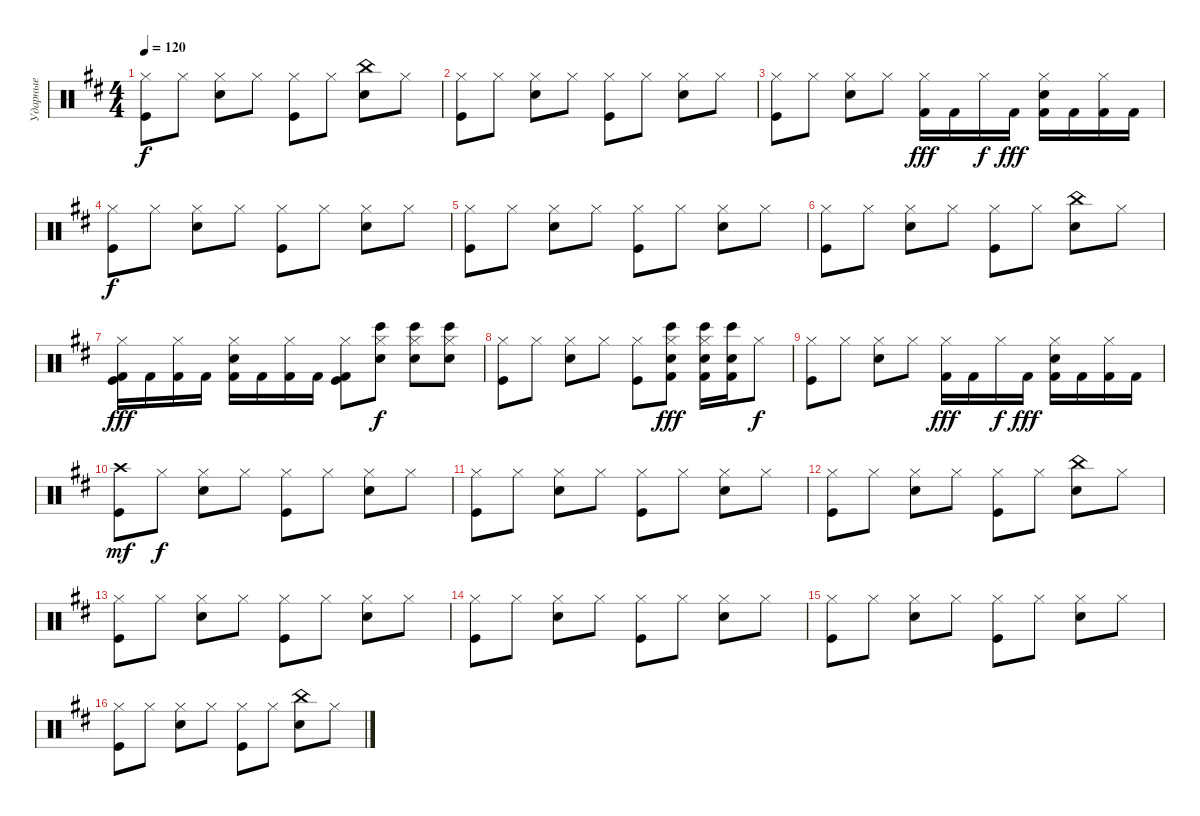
\track ("Ударные" "Ударные") {instrument percussion}
\staff {score}
\articulation defaults
\ts (4 4)
\tempo 120
\clef neutral
\ks bminor
("Hi-Hat (closed)" "Kick (hit)").8{dy f} "Hi-Hat (closed)".8 ("Hi-Hat (closed)" "Snare (hit) 2").8 "Hi-Hat (closed)".8 ("Hi-Hat (closed)" "Kick (hit)").8 "Hi-Hat (closed)".8 ("China (hit)" "Snare (hit) 2").8 "Hi-Hat (closed)".8 |
("Hi-Hat (closed)" "Kick (hit)").8 "Hi-Hat (closed)".8 ("Hi-Hat (closed)" "Snare (hit) 2").8 "Hi-Hat (closed)".8 ("Hi-Hat (closed)" "Kick (hit)").8 "Hi-Hat (closed)".8 ("Hi-Hat (closed)" "Snare (hit) 2").8 "Hi-Hat (closed)".8 |
("Hi-Hat (closed)" "Kick (hit)").8 "Hi-Hat (closed)".8 ("Hi-Hat (closed)" "Snare (hit) 2").8 "Hi-Hat (closed)".8 ("Hi-Hat (closed)" "Kick (hit) 2").16{dy fff} "Kick (hit) 2".16 "Hi-Hat (closed)".16{dy f} "Kick (hit) 2".16{dy fff} ("Hi-Hat (closed)" "Snare (hit) 2" "Kick (hit) 2").16 "Kick (hit) 2".16 ("Hi-Hat (closed)" "Kick (hit) 2").16 "Kick (hit) 2".16 |
("Hi-Hat (closed)" "Kick (hit)").8{dy f} "Hi-Hat (closed)".8 ("Hi-Hat (closed)" "Snare (hit) 2").8 "Hi-Hat (closed)".8 ("Hi-Hat (closed)" "Kick (hit)").8 "Hi-Hat (closed)".8 ("Hi-Hat (closed)" "Snare (hit) 2").8 "Hi-Hat (closed)".8 |
("Hi-Hat (closed)" "Kick (hit)").8 "Hi-Hat (closed)".8 ("Hi-Hat (closed)" "Snare (hit) 2").8 "Hi-Hat (closed)".8 ("Hi-Hat (closed)" "Kick (hit)").8 "Hi-Hat (closed)".8 ("Hi-Hat (closed)" "Snare (hit) 2").8 "Hi-Hat (closed)".8 |
("Hi-Hat (closed)" "Kick (hit)").8 "Hi-Hat (closed)".8 ("Hi-Hat (closed)" "Snare (hit) 2").8 "Hi-Hat (closed)".8 ("Hi-Hat (closed)" "Kick (hit)").8 "Hi-Hat (closed)".8 ("China (hit)" "Snare (hit) 2").8{balance 14} "Hi-Hat (closed)".8{balance 8} |
("Hi-Hat (closed)" "Kick (hit)" "Kick (hit) 2").16{dy fff} "Kick (hit) 2".16 ("Hi-Hat (closed)" "Kick (hit) 2").16 "Kick (hit) 2".16 ("Hi-Hat (closed)" "Snare (hit) 2" "Kick (hit) 2").16 "Kick (hit) 2".16 ("Hi-Hat (closed)" "Kick (hit) 2").16 "Kick (hit) 2".16 ("Hi-Hat (closed)" "Kick (hit)" "Kick (hit) 2").8 ("Hi-Hat (closed)" "Snare (hit) 2" "Bongo High (hit)").8{dy f} ("Hi-Hat (closed)" "Snare (hit) 2" "Bongo High (hit)").8 ("Hi-Hat (closed)" "Snare (hit) 2" "Bongo High (hit)").8 |
("Hi-Hat (closed)" "Kick (hit)").8 "Hi-Hat (closed)".8 ("Hi-Hat (closed)" "Snare (hit) 2").8 "Hi-Hat (closed)".8 ("Hi-Hat (closed)" "Kick (hit)").8 ("Hi-Hat (closed)" "Bongo High (hit)" "Hand Clap (hit)" "Kick (hit) 2").8{dy fff balance 13} ("Hi-Hat (closed)" "Snare (hit) 2" "Bongo High (hit)" "Kick (hit) 2").16 ("Bongo High (hit)" "Hand Clap (hit)" "Kick (hit) 2").16 "Hi-Hat (closed)".8{dy f balance 8} |
("Hi-Hat (closed)" "Kick (hit)").8 "Hi-Hat (closed)".8 ("Hi-Hat (closed)" "Snare (hit) 2").8 "Hi-Hat (closed)".8 ("Hi-Hat (closed)" "Kick (hit) 2").16{dy fff} "Kick (hit) 2".16 "Hi-Hat (closed)".16{dy f} "Kick (hit) 2".16{dy fff} ("Hi-Hat (closed)" "Snare (hit) 2" "Kick (hit) 2").16 "Kick (hit) 2".16 ("Hi-Hat (closed)" "Kick (hit) 2").16 "Kick (hit) 2".16 |
("Crash high (hit)" "Kick (hit)").8{dy mf} "Hi-Hat (closed)".8{dy f} ("Hi-Hat (closed)" "Snare (hit) 2").8 "Hi-Hat (closed)".8 ("Hi-Hat (closed)" "Kick (hit)").8 "Hi-Hat (closed)".8 ("Hi-Hat (closed)" "Snare (hit) 2").8 "Hi-Hat (closed)".8 |
("Hi-Hat (closed)" "Kick (hit)").8 "Hi-Hat (closed)".8 ("Hi-Hat (closed)" "Snare (hit) 2").8 "Hi-Hat (closed)".8 ("Hi-Hat (closed)" "Kick (hit)").8 "Hi-Hat (closed)".8 ("Hi-Hat (closed)" "Snare (hit) 2").8 "Hi-Hat (closed)".8 |
("Hi-Hat (closed)" "Kick (hit)").8 "Hi-Hat (closed)".8 ("Hi-Hat (closed)" "Snare (hit) 2").8 "Hi-Hat (closed)".8 ("Hi-Hat (closed)" "Kick (hit)").8 "Hi-Hat (closed)".8 ("China (hit)" "Snare (hit) 2").8 "Hi-Hat (closed)".8 |
("Hi-Hat (closed)" "Kick (hit)").8 "Hi-Hat (closed)".8 ("Hi-Hat (closed)" "Snare (hit) 2").8 "Hi-Hat (closed)".8 ("Hi-Hat (closed)" "Kick (hit)").8 "Hi-Hat (closed)".8 ("Hi-Hat (closed)" "Snare (hit) 2").8 "Hi-Hat (closed)".8 |
("Hi-Hat (closed)" "Kick (hit)").8 "Hi-Hat (closed)".8 ("Hi-Hat (closed)" "Snare (hit) 2").8 "Hi-Hat (closed)".8 ("Hi-Hat (closed)" "Kick (hit)").8 "Hi-Hat (closed)".8 ("Hi-Hat (closed)" "Snare (hit) 2").8 "Hi-Hat (closed)".8 |
("Hi-Hat (closed)" "Kick (hit)").8 "Hi-Hat (closed)".8 ("Hi-Hat (closed)" "Snare (hit) 2").8 "Hi-Hat (closed)".8 ("Hi-Hat (closed)" "Kick (hit)").8 "Hi-Hat (closed)".8 ("Hi-Hat (closed)" "Snare (hit) 2").8 "Hi-Hat (closed)".8 |
("Hi-Hat (closed)" "Kick (hit)").8 "Hi-Hat (closed)".8 ("Hi-Hat (closed)" "Snare (hit) 2").8 "Hi-Hat (closed)".8 ("Hi-Hat (closed)" "Kick (hit)").8 "Hi-Hat (closed)".8 ("China (hit)" "Snare (hit) 2").8{balance 14} "Hi-Hat (closed)".8{balance 8}
